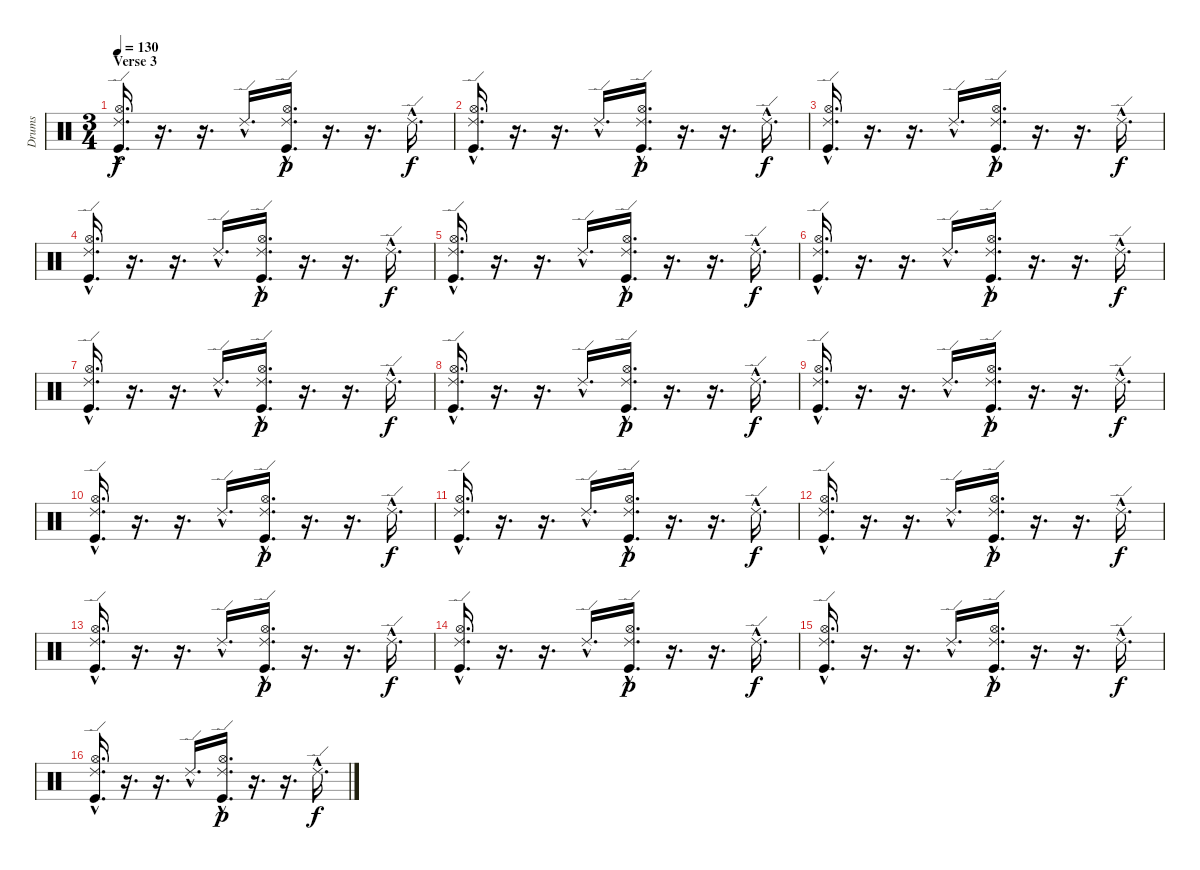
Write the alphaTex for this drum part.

\track ("Drums" "Drums") {instrument percussion}
\staff {score}
\articulation defaults
\ts (3 4)
\section ("" "Verse 3")
\tempo 130
\clef neutral
\ks c
("Ride (edge) 2"{hac} "Hi-Hat (open)"{hac} "Kick (hit)"{hac}).16{d dy f} r.16{d} r.16{d} "Ride (edge) 2"{hac}.16{d} ("Ride (edge) 2"{hac} "Hi-Hat (open)"{hac} "Kick (hit)"{hac}).16{d dy p} r.16{d} r.16{d} "Ride (edge) 2"{hac}.16{d dy f} |
("Ride (edge) 2"{hac} "Hi-Hat (open)"{hac} "Kick (hit)"{hac}).16{d} r.16{d} r.16{d} "Ride (edge) 2"{hac}.16{d} ("Ride (edge) 2"{hac} "Hi-Hat (open)"{hac} "Kick (hit)"{hac}).16{d dy p} r.16{d} r.16{d} "Ride (edge) 2"{hac}.16{d dy f} |
("Ride (edge) 2"{hac} "Hi-Hat (open)"{hac} "Kick (hit)"{hac}).16{d} r.16{d} r.16{d} "Ride (edge) 2"{hac}.16{d} ("Ride (edge) 2"{hac} "Hi-Hat (open)"{hac} "Kick (hit)"{hac}).16{d dy p} r.16{d} r.16{d} "Ride (edge) 2"{hac}.16{d dy f} |
("Ride (edge) 2"{hac} "Hi-Hat (open)"{hac} "Kick (hit)"{hac}).16{d} r.16{d} r.16{d} "Ride (edge) 2"{hac}.16{d} ("Ride (edge) 2"{hac} "Hi-Hat (open)"{hac} "Kick (hit)"{hac}).16{d dy p} r.16{d} r.16{d} "Ride (edge) 2"{hac}.16{d dy f} |
("Ride (edge) 2"{hac} "Hi-Hat (open)"{hac} "Kick (hit)"{hac}).16{d} r.16{d} r.16{d} "Ride (edge) 2"{hac}.16{d} ("Ride (edge) 2"{hac} "Hi-Hat (open)"{hac} "Kick (hit)"{hac}).16{d dy p} r.16{d} r.16{d} "Ride (edge) 2"{hac}.16{d dy f} |
("Ride (edge) 2"{hac} "Hi-Hat (open)"{hac} "Kick (hit)"{hac}).16{d} r.16{d} r.16{d} "Ride (edge) 2"{hac}.16{d} ("Ride (edge) 2"{hac} "Hi-Hat (open)"{hac} "Kick (hit)"{hac}).16{d dy p} r.16{d} r.16{d} "Ride (edge) 2"{hac}.16{d dy f} |
("Ride (edge) 2"{hac} "Hi-Hat (open)"{hac} "Kick (hit)"{hac}).16{d} r.16{d} r.16{d} "Ride (edge) 2"{hac}.16{d} ("Ride (edge) 2"{hac} "Hi-Hat (open)"{hac} "Kick (hit)"{hac}).16{d dy p} r.16{d} r.16{d} "Ride (edge) 2"{hac}.16{d dy f} |
("Ride (edge) 2"{hac} "Hi-Hat (open)"{hac} "Kick (hit)"{hac}).16{d} r.16{d} r.16{d} "Ride (edge) 2"{hac}.16{d} ("Ride (edge) 2"{hac} "Hi-Hat (open)"{hac} "Kick (hit)"{hac}).16{d dy p} r.16{d} r.16{d} "Ride (edge) 2"{hac}.16{d dy f} |
("Ride (edge) 2"{hac} "Hi-Hat (open)"{hac} "Kick (hit)"{hac}).16{d} r.16{d} r.16{d} "Ride (edge) 2"{hac}.16{d} ("Ride (edge) 2"{hac} "Hi-Hat (open)"{hac} "Kick (hit)"{hac}).16{d dy p} r.16{d} r.16{d} "Ride (edge) 2"{hac}.16{d dy f} |
("Ride (edge) 2"{hac} "Hi-Hat (open)"{hac} "Kick (hit)"{hac}).16{d} r.16{d} r.16{d} "Ride (edge) 2"{hac}.16{d} ("Ride (edge) 2"{hac} "Hi-Hat (open)"{hac} "Kick (hit)"{hac}).16{d dy p} r.16{d} r.16{d} "Ride (edge) 2"{hac}.16{d dy f} |
("Ride (edge) 2"{hac} "Hi-Hat (open)"{hac} "Kick (hit)"{hac}).16{d} r.16{d} r.16{d} "Ride (edge) 2"{hac}.16{d} ("Ride (edge) 2"{hac} "Hi-Hat (open)"{hac} "Kick (hit)"{hac}).16{d dy p} r.16{d} r.16{d} "Ride (edge) 2"{hac}.16{d dy f} |
("Ride (edge) 2"{hac} "Hi-Hat (open)"{hac} "Kick (hit)"{hac}).16{d} r.16{d} r.16{d} "Ride (edge) 2"{hac}.16{d} ("Ride (edge) 2"{hac} "Hi-Hat (open)"{hac} "Kick (hit)"{hac}).16{d dy p} r.16{d} r.16{d} "Ride (edge) 2"{hac}.16{d dy f} |
("Ride (edge) 2"{hac} "Hi-Hat (open)"{hac} "Kick (hit)"{hac}).16{d} r.16{d} r.16{d} "Ride (edge) 2"{hac}.16{d} ("Ride (edge) 2"{hac} "Hi-Hat (open)"{hac} "Kick (hit)"{hac}).16{d dy p} r.16{d} r.16{d} "Ride (edge) 2"{hac}.16{d dy f} |
("Ride (edge) 2"{hac} "Hi-Hat (open)"{hac} "Kick (hit)"{hac}).16{d} r.16{d} r.16{d} "Ride (edge) 2"{hac}.16{d} ("Ride (edge) 2"{hac} "Hi-Hat (open)"{hac} "Kick (hit)"{hac}).16{d dy p} r.16{d} r.16{d} "Ride (edge) 2"{hac}.16{d dy f} |
("Ride (edge) 2"{hac} "Hi-Hat (open)"{hac} "Kick (hit)"{hac}).16{d} r.16{d} r.16{d} "Ride (edge) 2"{hac}.16{d} ("Ride (edge) 2"{hac} "Hi-Hat (open)"{hac} "Kick (hit)"{hac}).16{d dy p} r.16{d} r.16{d} "Ride (edge) 2"{hac}.16{d dy f} |
("Ride (edge) 2"{hac} "Hi-Hat (open)"{hac} "Kick (hit)"{hac}).16{d} r.16{d} r.16{d} "Ride (edge) 2"{hac}.16{d} ("Ride (edge) 2"{hac} "Hi-Hat (open)"{hac} "Kick (hit)"{hac}).16{d dy p} r.16{d} r.16{d} "Ride (edge) 2"{hac}.16{d dy f}
